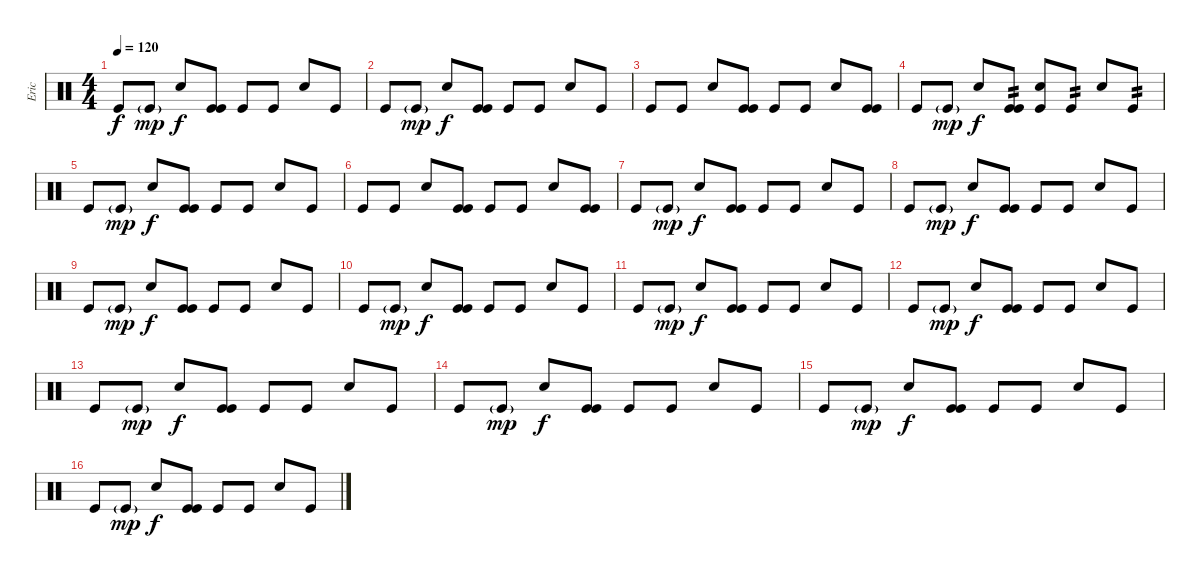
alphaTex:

\track ("Eric" "Eric") {instrument percussion}
\staff {score}
\articulation defaults
\ts (4 4)
\tempo 120
\clef neutral
\ks c "Kick (hit)".8{dy f} "Kick (hit)"{g}.8{dy mp} "Electric Snare (hit)".8{dy f}
("Kick (hit)" "Kick (hit)").8 "Kick (hit)".8 "Kick (hit)".8 "Electric Snare (hit)".8 "Kick (hit)".8 |
"Kick (hit)".8 "Kick (hit)"{g}.8{dy mp} "Electric Snare (hit)".8{dy f} ("Kick (hit)" "Kick (hit)").8 "Kick (hit)".8 "Kick (hit)".8 "Electric Snare (hit)".8 "Kick (hit)".8 |
"Kick (hit)".8 "Kick (hit)".8 "Electric Snare (hit)".8 ("Kick (hit)" "Kick (hit)").8 "Kick (hit)".8 "Kick (hit)".8 "Electric Snare (hit)".8 ("Kick (hit)" "Kick (hit)").8 |
"Kick (hit)".8 "Kick (hit)"{g}.8{dy mp} "Electric Snare (hit)".8{dy f} ("Kick (hit)" "Kick (hit)").8{tp 2} ("Electric Snare (hit)" "Kick (hit)").8 "Kick (hit)".8{tp 2} "Electric Snare (hit)".8 "Kick (hit)".8{tp 2} |
"Kick (hit)".8 "Kick (hit)"{g}.8{dy mp} "Electric Snare (hit)".8{dy f} ("Kick (hit)" "Kick (hit)").8 "Kick (hit)".8 "Kick (hit)".8 "Electric Snare (hit)".8 "Kick (hit)".8 |
"Kick (hit)".8 "Kick (hit)".8 "Electric Snare (hit)".8 ("Kick (hit)" "Kick (hit)").8 "Kick (hit)".8 "Kick (hit)".8 "Electric Snare (hit)".8 ("Kick (hit)" "Kick (hit)").8 |
"Kick (hit)".8 "Kick (hit)"{g}.8{dy mp} "Electric Snare (hit)".8{dy f} ("Kick (hit)" "Kick (hit)").8 "Kick (hit)".8 "Kick (hit)".8 "Electric Snare (hit)".8 "Kick (hit)".8 |
"Kick (hit)".8 "Kick (hit)"{g}.8{dy mp} "Electric Snare (hit)".8{dy f} ("Kick (hit)" "Kick (hit)").8 "Kick (hit)".8 "Kick (hit)".8 "Electric Snare (hit)".8 "Kick (hit)".8 |
"Kick (hit)".8 "Kick (hit)"{g}.8{dy mp} "Electric Snare (hit)".8{dy f} ("Kick (hit)" "Kick (hit)").8 "Kick (hit)".8 "Kick (hit)".8 "Electric Snare (hit)".8 "Kick (hit)".8 |
"Kick (hit)".8 "Kick (hit)"{g}.8{dy mp} "Electric Snare (hit)".8{dy f} ("Kick (hit)" "Kick (hit)").8 "Kick (hit)".8 "Kick (hit)".8 "Electric Snare (hit)".8 "Kick (hit)".8 |
"Kick (hit)".8 "Kick (hit)"{g}.8{dy mp} "Electric Snare (hit)".8{dy f} ("Kick (hit)" "Kick (hit)").8 "Kick (hit)".8 "Kick (hit)".8 "Electric Snare (hit)".8 "Kick (hit)".8 |
"Kick (hit)".8 "Kick (hit)"{g}.8{dy mp} "Electric Snare (hit)".8{dy f} ("Kick (hit)" "Kick (hit)").8 "Kick (hit)".8 "Kick (hit)".8 "Electric Snare (hit)".8 "Kick (hit)".8 |
"Kick (hit)".8 "Kick (hit)"{g}.8{dy mp} "Electric Snare (hit)".8{dy f} ("Kick (hit)" "Kick (hit)").8 "Kick (hit)".8 "Kick (hit)".8 "Electric Snare (hit)".8 "Kick (hit)".8 |
"Kick (hit)".8 "Kick (hit)"{g}.8{dy mp} "Electric Snare (hit)".8{dy f} ("Kick (hit)" "Kick (hit)").8 "Kick (hit)".8 "Kick (hit)".8 "Electric Snare (hit)".8 "Kick (hit)".8 |
"Kick (hit)".8 "Kick (hit)"{g}.8{dy mp} "Electric Snare (hit)".8{dy f} ("Kick (hit)" "Kick (hit)").8 "Kick (hit)".8 "Kick (hit)".8 "Electric Snare (hit)".8 "Kick (hit)".8 |
"Kick (hit)".8 "Kick (hit)"{g}.8{dy mp} "Electric Snare (hit)".8{dy f} ("Kick (hit)" "Kick (hit)").8 "Kick (hit)".8 "Kick (hit)".8 "Electric Snare (hit)".8 "Kick (hit)".8
